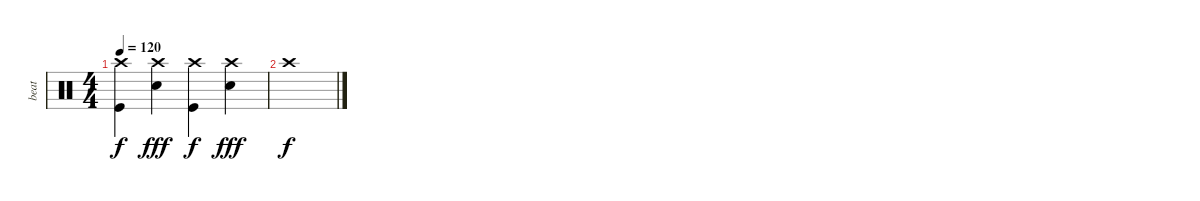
\track ("beat" "beat") {instrument percussion}
\staff {score}
\articulation defaults
\ts (4 4)
\tempo 120
\clef neutral
\ks c
("Kick (hit)" "Crash high (hit)").4{dy f} ("Snare (hit) 2" "Crash high (hit)").4{dy fff} ("Kick (hit)" "Crash high (hit)").4{dy f} ("Snare (hit) 2" "Crash high (hit)").4{dy fff} |
"Crash high (hit)".1{dy f}
